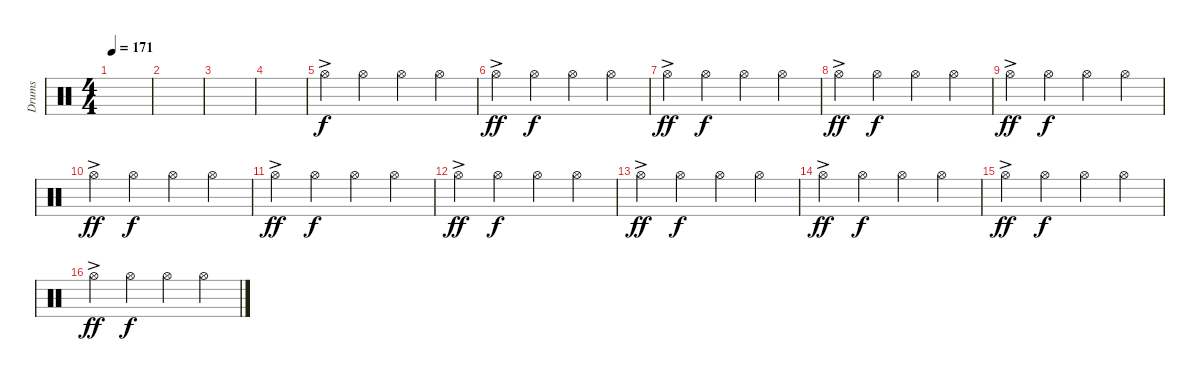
\track ("Drums" "Drums") {instrument percussion}
\staff {score}
\articulation defaults
\ts (4 4)
\tempo 171
\clef neutral
\ks c
|
|
|
|
"Hi-Hat (open)"{ac}.4 "Hi-Hat (open)".4{dy f} "Hi-Hat (open)".4 "Hi-Hat (open)".4 |
"Hi-Hat (open)"{ac}.4{dy ff} "Hi-Hat (open)".4{dy f} "Hi-Hat (open)".4 "Hi-Hat (open)".4 |
"Hi-Hat (open)"{ac}.4{dy ff} "Hi-Hat (open)".4{dy f} "Hi-Hat (open)".4 "Hi-Hat (open)".4 |
"Hi-Hat (open)"{ac}.4{dy ff} "Hi-Hat (open)".4{dy f} "Hi-Hat (open)".4 "Hi-Hat (open)".4 |
"Hi-Hat (open)"{ac}.4{dy ff} "Hi-Hat (open)".4{dy f} "Hi-Hat (open)".4 "Hi-Hat (open)".4 |
"Hi-Hat (open)"{ac}.4{dy ff} "Hi-Hat (open)".4{dy f} "Hi-Hat (open)".4 "Hi-Hat (open)".4 |
"Hi-Hat (open)"{ac}.4{dy ff} "Hi-Hat (open)".4{dy f} "Hi-Hat (open)".4 "Hi-Hat (open)".4 |
"Hi-Hat (open)"{ac}.4{dy ff} "Hi-Hat (open)".4{dy f} "Hi-Hat (open)".4 "Hi-Hat (open)".4 |
"Hi-Hat (open)"{ac}.4{dy ff} "Hi-Hat (open)".4{dy f} "Hi-Hat (open)".4 "Hi-Hat (open)".4 |
"Hi-Hat (open)"{ac}.4{dy ff} "Hi-Hat (open)".4{dy f} "Hi-Hat (open)".4 "Hi-Hat (open)".4 |
"Hi-Hat (open)"{ac}.4{dy ff} "Hi-Hat (open)".4{dy f} "Hi-Hat (open)".4 "Hi-Hat (open)".4 |
"Hi-Hat (open)"{ac}.4{dy ff} "Hi-Hat (open)".4{dy f} "Hi-Hat (open)".4 "Hi-Hat (open)".4
